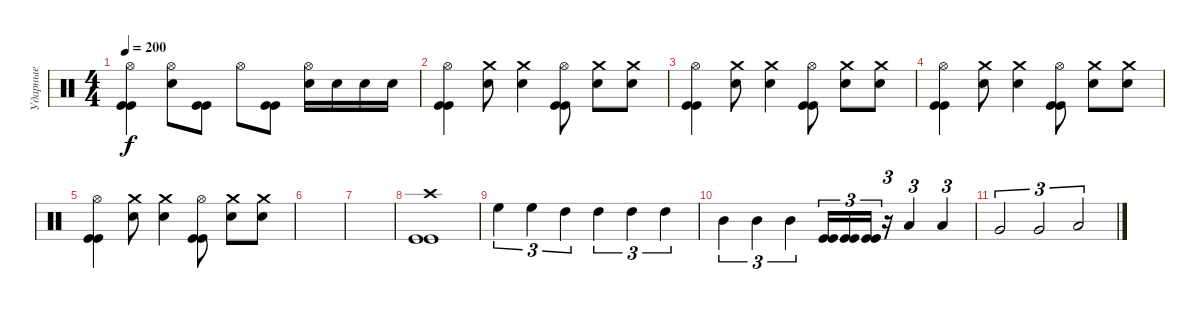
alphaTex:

\track ("Ударные" "Ударные") {instrument percussion}
\staff {score}
\articulation defaults
\ts (4 4)
\tempo 200
\clef neutral
\ks c
("Hi-Hat (open)" "Kick (hit)" "Kick (hit)").4{dy f} ("Hi-Hat (open)" "Electric Snare (hit)").8 ("Kick (hit)" "Kick (hit)").8 "Hi-Hat (open)".8 ("Kick (hit)" "Kick (hit)").8 ("Hi-Hat (open)" "Electric Snare (hit)").16 "Electric Snare (hit)".16 "Electric Snare (hit)".16 "Electric Snare (hit)".16 |
("Hi-Hat (open)" "Kick (hit)" "Kick (hit)").4 ("Crash medium (hit)" "Electric Snare (hit)").8 ("Crash medium (hit)" "Electric Snare (hit)").4 ("Hi-Hat (open)" "Kick (hit)" "Kick (hit)").8 ("Crash medium (hit)" "Electric Snare (hit)").8 ("Crash medium (hit)" "Electric Snare (hit)").8 |
("Hi-Hat (open)" "Kick (hit)" "Kick (hit)").4 ("Crash medium (hit)" "Electric Snare (hit)").8 ("Crash medium (hit)" "Electric Snare (hit)").4 ("Hi-Hat (open)" "Kick (hit)" "Kick (hit)").8 ("Crash medium (hit)" "Electric Snare (hit)").8 ("Crash medium (hit)" "Electric Snare (hit)").8 |
("Hi-Hat (open)" "Kick (hit)" "Kick (hit)").4 ("Crash medium (hit)" "Electric Snare (hit)").8 ("Crash medium (hit)" "Electric Snare (hit)").4 ("Hi-Hat (open)" "Kick (hit)" "Kick (hit)").8 ("Crash medium (hit)" "Electric Snare (hit)").8 ("Crash medium (hit)" "Electric Snare (hit)").8 |
("Hi-Hat (open)" "Kick (hit)" "Kick (hit)").4 ("Crash medium (hit)" "Electric Snare (hit)").8 ("Crash medium (hit)" "Electric Snare (hit)").4 ("Hi-Hat (open)" "Kick (hit)" "Kick (hit)").8 ("Crash medium (hit)" "Electric Snare (hit)").8 ("Crash medium (hit)" "Electric Snare (hit)").8 |
|
|
("Crash high (hit)" "Kick (hit)" "Kick (hit)").1 |
"High Floor Tom (hit)".4{tu (3 2)} "High Floor Tom (hit)".4{tu (3 2)} "High Tom (hit)".4{tu (3 2)} "High Tom (hit)".4{tu (3 2)} "High Tom (hit)".4{tu (3 2)} "High Tom (hit)".4{tu (3 2)} |
"Mid Tom (hit)".4{tu (3 2)} "Mid Tom (hit)".4{tu (3 2)} "Mid Tom (hit)".4{tu (3 2)} ("Kick (hit)" "Kick (hit)").16{tu (3 2)} ("Kick (hit)" "Kick (hit)").16{tu (3 2)} ("Kick (hit)" "Kick (hit)").16{tu (3 2)} r.16{tu (3 2)} "Low Tom (hit)".4{tu (3 2)} "Low Tom (hit)".4{tu (3 2)} |
"Very Low Tom (hit)".2{tu (3 2)} "Very Low Tom (hit)".2{tu (3 2)} "Low Floor Tom (hit)".2{tu (3 2)}
